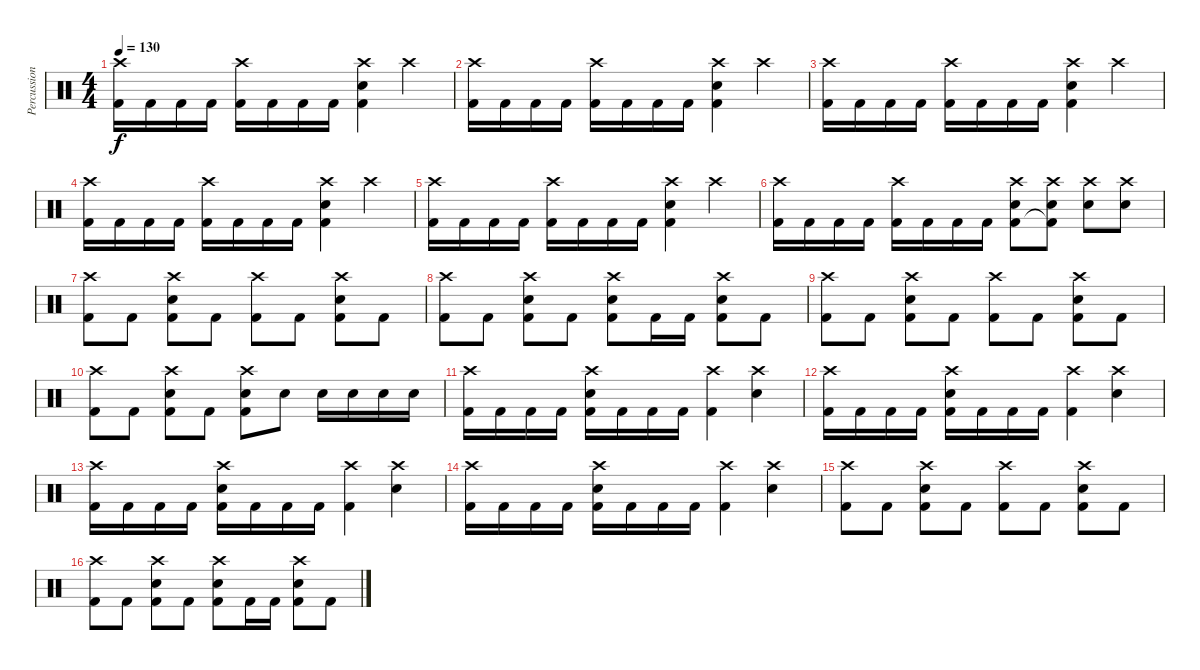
\track ("Percussion" "Percussion") {instrument percussion}
\staff {score}
\articulation defaults
\ts (4 4)
\tempo 130
\clef neutral
\ks c
("Crash high (hit)" "Kick (hit) 2").16{dy f} "Kick (hit) 2".16 "Kick (hit) 2".16 "Kick (hit) 2".16 ("Crash high (hit)" "Kick (hit) 2").16 "Kick (hit) 2".16 "Kick (hit) 2".16 "Kick (hit) 2".16 ("Crash high (hit)" "Electric Snare (hit)" "Kick (hit) 2").4 "Crash high (hit)".4 |
("Crash high (hit)" "Kick (hit) 2").16 "Kick (hit) 2".16 "Kick (hit) 2".16 "Kick (hit) 2".16 ("Crash high (hit)" "Kick (hit) 2").16 "Kick (hit) 2".16 "Kick (hit) 2".16 "Kick (hit) 2".16 ("Crash high (hit)" "Electric Snare (hit)" "Kick (hit) 2").4 "Crash high (hit)".4 |
("Crash high (hit)" "Kick (hit) 2").16 "Kick (hit) 2".16 "Kick (hit) 2".16 "Kick (hit) 2".16 ("Crash high (hit)" "Kick (hit) 2").16 "Kick (hit) 2".16 "Kick (hit) 2".16 "Kick (hit) 2".16 ("Crash high (hit)" "Electric Snare (hit)" "Kick (hit) 2").4 "Crash high (hit)".4 |
("Crash high (hit)" "Kick (hit) 2").16 "Kick (hit) 2".16 "Kick (hit) 2".16 "Kick (hit) 2".16 ("Crash high (hit)" "Kick (hit) 2").16 "Kick (hit) 2".16 "Kick (hit) 2".16 "Kick (hit) 2".16 ("Crash high (hit)" "Electric Snare (hit)" "Kick (hit) 2").4 "Crash high (hit)".4 |
("Crash high (hit)" "Kick (hit) 2").16 "Kick (hit) 2".16 "Kick (hit) 2".16 "Kick (hit) 2".16 ("Crash high (hit)" "Kick (hit) 2").16 "Kick (hit) 2".16 "Kick (hit) 2".16 "Kick (hit) 2".16 ("Crash high (hit)" "Electric Snare (hit)" "Kick (hit) 2").4 "Crash high (hit)".4 |
("Crash high (hit)" "Kick (hit) 2").16 "Kick (hit) 2".16 "Kick (hit) 2".16 "Kick (hit) 2".16 ("Crash high (hit)" "Kick (hit) 2").16 "Kick (hit) 2".16 "Kick (hit) 2".16 "Kick (hit) 2".16 ("Crash high (hit)" "Electric Snare (hit)" "Kick (hit) 2").8 ("Crash high (hit)" "Electric Snare (hit)" "Kick (hit) 2"{t}).8 ("Crash high (hit)" "Electric Snare (hit)").8 ("Crash high (hit)" "Electric Snare (hit)").8 |
("Crash high (hit)" "Kick (hit) 2").8 "Kick (hit) 2".8 ("Crash high (hit)" "Electric Snare (hit)" "Kick (hit) 2").8 "Kick (hit) 2".8 ("Crash high (hit)" "Kick (hit) 2").8 "Kick (hit) 2".8 ("Crash high (hit)" "Electric Snare (hit)" "Kick (hit) 2").8 "Kick (hit) 2".8 |
("Crash high (hit)" "Kick (hit) 2").8 "Kick (hit) 2".8 ("Crash high (hit)" "Electric Snare (hit)" "Kick (hit) 2").8 "Kick (hit) 2".8 ("Crash high (hit)" "Electric Snare (hit)" "Kick (hit) 2").8 "Kick (hit) 2".16 "Kick (hit) 2".16 ("Crash high (hit)" "Electric Snare (hit)" "Kick (hit) 2").8 "Kick (hit) 2".8 |
("Crash high (hit)" "Kick (hit) 2").8 "Kick (hit) 2".8 ("Crash high (hit)" "Electric Snare (hit)" "Kick (hit) 2").8 "Kick (hit) 2".8 ("Crash high (hit)" "Kick (hit) 2").8 "Kick (hit) 2".8 ("Crash high (hit)" "Electric Snare (hit)" "Kick (hit) 2").8 "Kick (hit) 2".8 |
("Crash high (hit)" "Kick (hit) 2").8 "Kick (hit) 2".8 ("Crash high (hit)" "Electric Snare (hit)" "Kick (hit) 2").8 "Kick (hit) 2".8 ("Crash high (hit)" "Electric Snare (hit)" "Kick (hit) 2").8 "Electric Snare (hit)".8 "Electric Snare (hit)".16 "Electric Snare (hit)".16 "Electric Snare (hit)".16 "Electric Snare (hit)".16 |
("Crash high (hit)" "Kick (hit) 2").16 "Kick (hit) 2".16 "Kick (hit) 2".16 "Kick (hit) 2".16 ("Crash high (hit)" "Electric Snare (hit)" "Kick (hit) 2").16 "Kick (hit) 2".16 "Kick (hit) 2".16 "Kick (hit) 2".16 ("Crash high (hit)" "Kick (hit) 2").4 ("Crash high (hit)" "Electric Snare (hit)").4 |
("Crash high (hit)" "Kick (hit) 2").16 "Kick (hit) 2".16 "Kick (hit) 2".16 "Kick (hit) 2".16 ("Crash high (hit)" "Electric Snare (hit)" "Kick (hit) 2").16 "Kick (hit) 2".16 "Kick (hit) 2".16 "Kick (hit) 2".16 ("Crash high (hit)" "Kick (hit) 2").4 ("Crash high (hit)" "Electric Snare (hit)").4 |
("Crash high (hit)" "Kick (hit) 2").16 "Kick (hit) 2".16 "Kick (hit) 2".16 "Kick (hit) 2".16 ("Crash high (hit)" "Electric Snare (hit)" "Kick (hit) 2").16 "Kick (hit) 2".16 "Kick (hit) 2".16 "Kick (hit) 2".16 ("Crash high (hit)" "Kick (hit) 2").4 ("Crash high (hit)" "Electric Snare (hit)").4 |
("Crash high (hit)" "Kick (hit) 2").16 "Kick (hit) 2".16 "Kick (hit) 2".16 "Kick (hit) 2".16 ("Crash high (hit)" "Electric Snare (hit)" "Kick (hit) 2").16 "Kick (hit) 2".16 "Kick (hit) 2".16 "Kick (hit) 2".16 ("Crash high (hit)" "Kick (hit) 2").4 ("Crash high (hit)" "Electric Snare (hit)").4 |
("Crash high (hit)" "Kick (hit) 2").8 "Kick (hit) 2".8 ("Crash high (hit)" "Electric Snare (hit)" "Kick (hit) 2").8 "Kick (hit) 2".8 ("Crash high (hit)" "Kick (hit) 2").8 "Kick (hit) 2".8 ("Crash high (hit)" "Electric Snare (hit)" "Kick (hit) 2").8 "Kick (hit) 2".8 |
("Crash high (hit)" "Kick (hit) 2").8 "Kick (hit) 2".8 ("Crash high (hit)" "Electric Snare (hit)" "Kick (hit) 2").8 "Kick (hit) 2".8 ("Crash high (hit)" "Electric Snare (hit)" "Kick (hit) 2").8 "Kick (hit) 2".16 "Kick (hit) 2".16 ("Crash high (hit)" "Electric Snare (hit)" "Kick (hit) 2").8 "Kick (hit) 2".8
